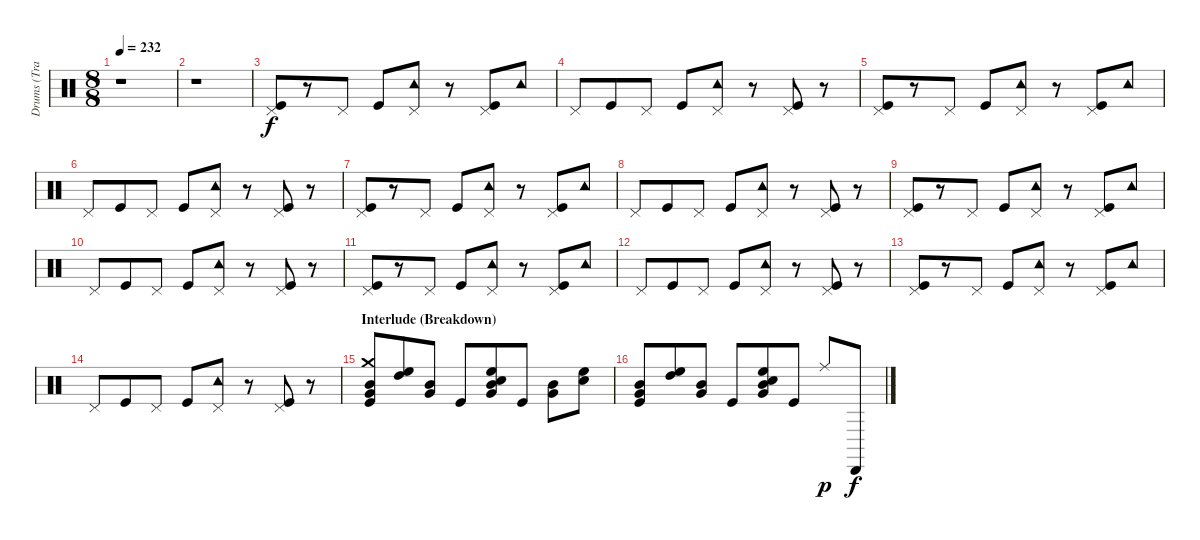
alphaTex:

\track ("Drums (Travis)" "Drums (Tra") {instrument percussion}
\staff {score}
\articulation defaults
\ts (8 8)
\tempo 232
\clef neutral
\ks c
r.1{dy f} |
r.1 |
("Pedal Hi-Hat (hit)" "Kick (hit)").8 r.8 "Pedal Hi-Hat (hit)".8 "Kick (hit)".8 ("Pedal Hi-Hat (hit)" "Tambourine (hit)").8 r.8 ("Pedal Hi-Hat (hit)" "Kick (hit)").8 "Tambourine (hit)".8 |
"Pedal Hi-Hat (hit)".8 "Kick (hit)".8 "Pedal Hi-Hat (hit)".8 "Kick (hit)".8 ("Pedal Hi-Hat (hit)" "Tambourine (hit)").8 r.8 ("Pedal Hi-Hat (hit)" "Kick (hit)").8 r.8 |
("Pedal Hi-Hat (hit)" "Kick (hit)").8 r.8 "Pedal Hi-Hat (hit)".8 "Kick (hit)".8 ("Pedal Hi-Hat (hit)" "Tambourine (hit)").8 r.8 ("Pedal Hi-Hat (hit)" "Kick (hit)").8 "Tambourine (hit)".8 |
"Pedal Hi-Hat (hit)".8 "Kick (hit)".8 "Pedal Hi-Hat (hit)".8 "Kick (hit)".8 ("Pedal Hi-Hat (hit)" "Tambourine (hit)").8 r.8 ("Pedal Hi-Hat (hit)" "Kick (hit)").8 r.8 |
("Pedal Hi-Hat (hit)" "Kick (hit)").8 r.8 "Pedal Hi-Hat (hit)".8 "Kick (hit)".8 ("Pedal Hi-Hat (hit)" "Tambourine (hit)").8 r.8 ("Pedal Hi-Hat (hit)" "Kick (hit)").8 "Tambourine (hit)".8 |
"Pedal Hi-Hat (hit)".8 "Kick (hit)".8 "Pedal Hi-Hat (hit)".8 "Kick (hit)".8 ("Pedal Hi-Hat (hit)" "Tambourine (hit)").8 r.8 ("Pedal Hi-Hat (hit)" "Kick (hit)").8 r.8 |
("Pedal Hi-Hat (hit)" "Kick (hit)").8 r.8 "Pedal Hi-Hat (hit)".8 "Kick (hit)".8 ("Pedal Hi-Hat (hit)" "Tambourine (hit)").8 r.8 ("Pedal Hi-Hat (hit)" "Kick (hit)").8 "Tambourine (hit)".8 |
"Pedal Hi-Hat (hit)".8 "Kick (hit)".8 "Pedal Hi-Hat (hit)".8 "Kick (hit)".8 ("Pedal Hi-Hat (hit)" "Tambourine (hit)").8 r.8 ("Pedal Hi-Hat (hit)" "Kick (hit)").8 r.8 |
("Pedal Hi-Hat (hit)" "Kick (hit)").8 r.8 "Pedal Hi-Hat (hit)".8 "Kick (hit)".8 ("Pedal Hi-Hat (hit)" "Tambourine (hit)").8 r.8 ("Pedal Hi-Hat (hit)" "Kick (hit)").8 "Tambourine (hit)".8 |
"Pedal Hi-Hat (hit)".8 "Kick (hit)".8 "Pedal Hi-Hat (hit)".8 "Kick (hit)".8 ("Pedal Hi-Hat (hit)" "Tambourine (hit)").8 r.8 ("Pedal Hi-Hat (hit)" "Kick (hit)").8 r.8 |
("Pedal Hi-Hat (hit)" "Kick (hit)").8 r.8 "Pedal Hi-Hat (hit)".8 "Kick (hit)".8 ("Pedal Hi-Hat (hit)" "Tambourine (hit)").8 r.8 ("Pedal Hi-Hat (hit)" "Kick (hit)").8 "Tambourine (hit)".8 |
"Pedal Hi-Hat (hit)".8 "Kick (hit)".8 "Pedal Hi-Hat (hit)".8 "Kick (hit)".8 ("Pedal Hi-Hat (hit)" "Tambourine (hit)").8 r.8 ("Pedal Hi-Hat (hit)" "Kick (hit)").8 r.8 |
\section ("" "Interlude (Breakdown)")
("Crash medium (hit)" "Mid Tom (hit)" "Very Low Tom (hit)" "Kick (hit)").8 ("High Tom (hit)" "High Floor Tom (hit)").8 ("Very Low Tom (hit)" "Mid Tom (hit)").8 "Kick (hit)".8 ("Mid Tom (hit)" "Very Low Tom (hit)" "High Floor Tom (hit)" "Electric Snare (hit)").8 "Kick (hit)".8 ("Mid Tom (hit)" "Very Low Tom (hit)").8 ("High Floor Tom (hit)" "Electric Snare (hit)").8 |
("Mid Tom (hit)" "Very Low Tom (hit)" "Kick (hit)").8 ("High Tom (hit)" "High Floor Tom (hit)").8 ("Very Low Tom (hit)" "Mid Tom (hit)").8 "Kick (hit)".8 ("Mid Tom (hit)" "Very Low Tom (hit)" "High Floor Tom (hit)" "Electric Snare (hit)").8 "Kick (hit)".8 "Ride (middle)".8{dy p} "Cabasa (hit)".8{dy f}
